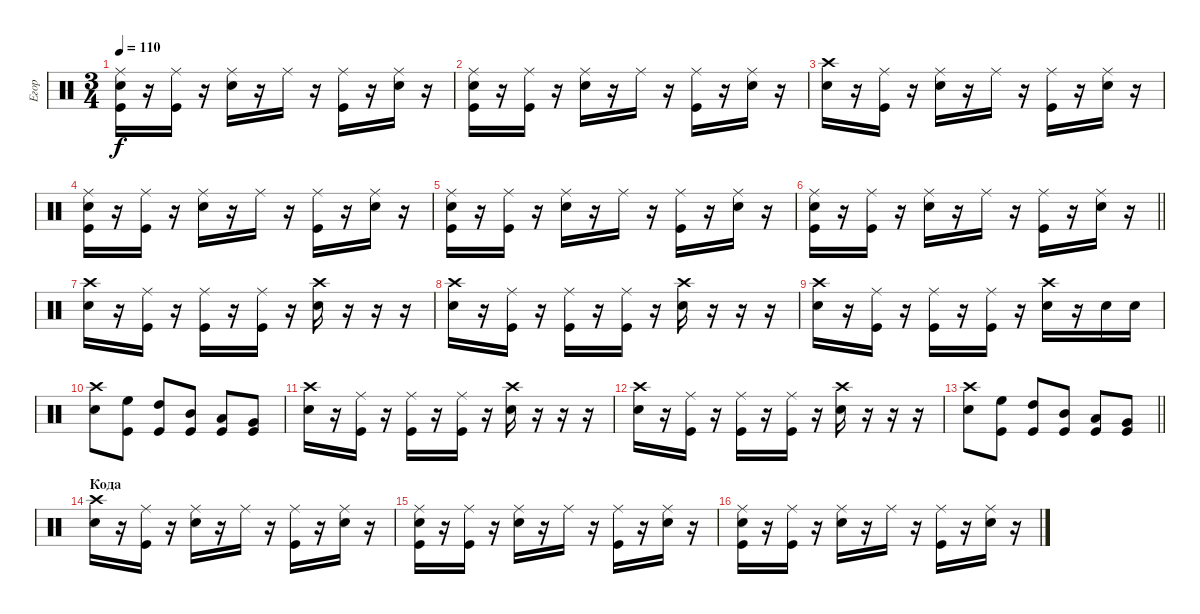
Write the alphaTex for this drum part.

\track ("Егор" "Егор") {instrument percussion}
\staff {score}
\articulation defaults
\ts (3 4)
\tempo 110
\clef neutral
\ks c
("Kick (hit)" "Ride (middle)" "Snare (hit) 2").16{dy f} r.16 ("Ride (middle)" "Kick (hit)").16 r.16 ("Snare (hit) 2" "Ride (middle)").16 r.16 "Ride (middle)".16 r.16 ("Ride (middle)" "Kick (hit)").16 r.16 ("Ride (middle)" "Snare (hit) 2").16 r.16 |
("Kick (hit)" "Ride (middle)" "Snare (hit) 2").16 r.16 ("Ride (middle)" "Kick (hit)").16 r.16 ("Snare (hit) 2" "Ride (middle)").16 r.16 "Ride (middle)".16 r.16 ("Ride (middle)" "Kick (hit)").16 r.16 ("Ride (middle)" "Snare (hit) 2").16 r.16 |
("Snare (hit) 2" "Crash high (hit)").16 r.16 ("Ride (middle)" "Kick (hit)").16 r.16 ("Snare (hit) 2" "Ride (middle)").16 r.16 "Ride (middle)".16 r.16 ("Ride (middle)" "Kick (hit)").16 r.16 ("Ride (middle)" "Snare (hit) 2").16 r.16 |
("Kick (hit)" "Ride (middle)" "Snare (hit) 2").16 r.16 ("Ride (middle)" "Kick (hit)").16 r.16 ("Snare (hit) 2" "Ride (middle)").16 r.16 "Ride (middle)".16 r.16 ("Ride (middle)" "Kick (hit)").16 r.16 ("Ride (middle)" "Snare (hit) 2").16 r.16 |
("Kick (hit)" "Ride (middle)" "Snare (hit) 2").16 r.16 ("Ride (middle)" "Kick (hit)").16 r.16 ("Snare (hit) 2" "Ride (middle)").16 r.16 "Ride (middle)".16 r.16 ("Ride (middle)" "Kick (hit)").16 r.16 ("Ride (middle)" "Snare (hit) 2").16 r.16 |
\barLineRight lightlight
("Kick (hit)" "Ride (middle)" "Snare (hit) 2").16 r.16 ("Ride (middle)" "Kick (hit)").16 r.16 ("Snare (hit) 2" "Ride (middle)").16 r.16 "Ride (middle)".16 r.16 ("Ride (middle)" "Kick (hit)").16 r.16 ("Ride (middle)" "Snare (hit) 2").16 r.16 |
("Snare (hit) 2" "Crash high (hit)").16 r.16 ("Ride (middle)" "Kick (hit)").16 r.16 ("Ride (middle)" "Kick (hit)").16 r.16 ("Ride (middle)" "Kick (hit)").16 r.16 ("Snare (hit) 2" "Crash high (hit)").16 r.16 r.16 r.16 |
("Snare (hit) 2" "Crash high (hit)").16 r.16 ("Ride (middle)" "Kick (hit)").16 r.16 ("Ride (middle)" "Kick (hit)").16 r.16 ("Ride (middle)" "Kick (hit)").16 r.16 ("Snare (hit) 2" "Crash high (hit)").16 r.16 r.16 r.16 |
("Snare (hit) 2" "Crash high (hit)").16 r.16 ("Ride (middle)" "Kick (hit)").16 r.16 ("Ride (middle)" "Kick (hit)").16 r.16 ("Ride (middle)" "Kick (hit)").16 r.16 ("Snare (hit) 2" "Crash high (hit)").16 r.16 "Snare (hit) 2".16 "Snare (hit) 2".16 |
("Snare (hit) 2" "Crash high (hit)").8 ("High Floor Tom (hit)" "Kick (hit)").8 ("High Tom (hit)" "Kick (hit)").8 ("Mid Tom (hit)" "Kick (hit)").8 ("Low Tom (hit)" "Kick (hit)").8 ("Very Low Tom (hit)" "Kick (hit)").8 |
("Snare (hit) 2" "Crash high (hit)").16 r.16 ("Ride (middle)" "Kick (hit)").16 r.16 ("Ride (middle)" "Kick (hit)").16 r.16 ("Ride (middle)" "Kick (hit)").16 r.16 ("Snare (hit) 2" "Crash high (hit)").16 r.16 r.16 r.16 |
("Snare (hit) 2" "Crash high (hit)").16 r.16 ("Ride (middle)" "Kick (hit)").16 r.16 ("Ride (middle)" "Kick (hit)").16 r.16 ("Ride (middle)" "Kick (hit)").16 r.16 ("Snare (hit) 2" "Crash high (hit)").16 r.16 r.16 r.16 |
\barLineRight lightlight
("Snare (hit) 2" "Crash high (hit)").8 ("High Floor Tom (hit)" "Kick (hit)").8 ("High Tom (hit)" "Kick (hit)").8 ("Mid Tom (hit)" "Kick (hit)").8 ("Low Tom (hit)" "Kick (hit)").8 ("Very Low Tom (hit)" "Kick (hit)").8 |
\section ("" "Кода")
("Snare (hit) 2" "Crash high (hit)").16 r.16 ("Ride (middle)" "Kick (hit)").16 r.16 ("Snare (hit) 2" "Ride (middle)").16 r.16 "Ride (middle)".16 r.16 ("Ride (middle)" "Kick (hit)").16 r.16 ("Ride (middle)" "Snare (hit) 2").16 r.16 |
("Kick (hit)" "Ride (middle)" "Snare (hit) 2").16 r.16 ("Ride (middle)" "Kick (hit)").16 r.16 ("Snare (hit) 2" "Ride (middle)").16 r.16 "Ride (middle)".16 r.16 ("Ride (middle)" "Kick (hit)").16 r.16 ("Ride (middle)" "Snare (hit) 2").16 r.16 |
("Kick (hit)" "Ride (middle)" "Snare (hit) 2").16 r.16 ("Ride (middle)" "Kick (hit)").16 r.16 ("Snare (hit) 2" "Ride (middle)").16 r.16 "Ride (middle)".16 r.16 ("Ride (middle)" "Kick (hit)").16 r.16 ("Ride (middle)" "Snare (hit) 2").16 r.16
